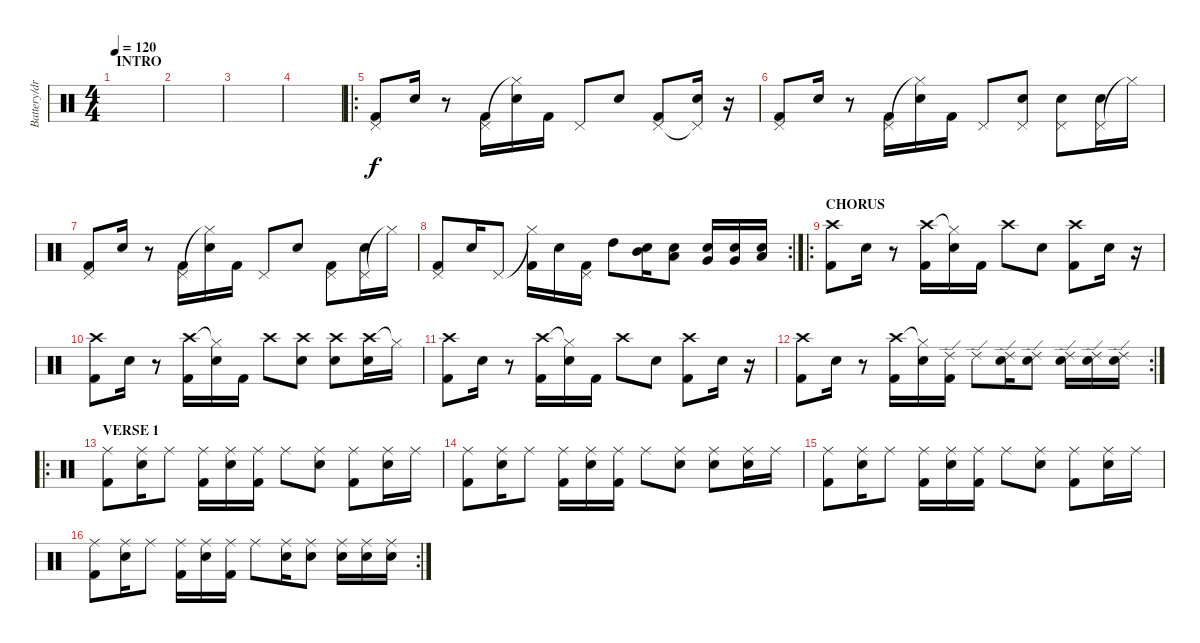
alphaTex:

\track ("Battery/drums" "Battery/dr") {instrument percussion}
\staff {score}
\articulation defaults
\ts (4 4)
\section ("" "INTRO")
\tempo 120
\clef neutral
\ks c
|
|
|
|
\ro
("Pedal Hi-Hat (hit)" "Kick (hit) 2").8 "Electric Snare (hit)".16 r.8 ("Pedal Hi-Hat (hit)" "Kick (hit) 2").16 ("Hi-Hat (closed)"{t} "Electric Snare (hit)").16 "Kick (hit) 2".16 "Pedal Hi-Hat (hit)".8 "Electric Snare (hit)".8 ("Pedal Hi-Hat (hit)" "Kick (hit) 2").8 ("Pedal Hi-Hat (hit)"{t} "Electric Snare (hit)").16 r.16 |
("Pedal Hi-Hat (hit)" "Kick (hit) 2").8 "Electric Snare (hit)".16 r.8 ("Pedal Hi-Hat (hit)" "Kick (hit) 2").16 ("Hi-Hat (closed)"{t} "Electric Snare (hit)").16 "Kick (hit) 2".16 "Pedal Hi-Hat (hit)".8 ("Pedal Hi-Hat (hit)" "Electric Snare (hit)").8 ("Pedal Hi-Hat (hit)" "Electric Snare (hit)").8 ("Pedal Hi-Hat (hit)" "Electric Snare (hit)").16 "Hi-Hat (closed)"{t}.16 |
("Pedal Hi-Hat (hit)" "Kick (hit) 2").8 "Electric Snare (hit)".16 r.8 ("Pedal Hi-Hat (hit)" "Kick (hit) 2").16 ("Hi-Hat (closed)"{t} "Electric Snare (hit)").16 "Kick (hit) 2".16 "Pedal Hi-Hat (hit)".8 "Electric Snare (hit)".8 ("Pedal Hi-Hat (hit)" "Kick (hit) 2").8 ("Pedal Hi-Hat (hit)" "Electric Snare (hit)").16 "Hi-Hat (closed)"{t}.16 |
\rc 2
("Pedal Hi-Hat (hit)" "Kick (hit) 2").8 "Electric Snare (hit)".16 "Pedal Hi-Hat (hit)".8 ("Hi-Hat (closed)"{t} "Kick (hit) 2").16 "Electric Snare (hit)".16 ("Pedal Hi-Hat (hit)" "Kick (hit) 2").16 "High Tom (hit)".8 ("Mid Tom (hit)" "Electric Snare (hit)").16 ("Low Tom (hit)" "Electric Snare (hit)").8 ("Very Low Tom (hit)" "Electric Snare (hit)").16 ("Very Low Tom (hit)" "Electric Snare (hit)").16 ("Low Floor Tom (hit)" "Electric Snare (hit)").16 |
\ro
\section ("" "CHORUS")
("Crash high (hit)" "Kick (hit) 2").8 "Electric Snare (hit)".16 r.8 ("Crash high (hit)" "Kick (hit) 2").16 ("Hi-Hat (closed)"{t} "Electric Snare (hit)").16 "Kick (hit) 2".16 "Crash high (hit)".8 "Electric Snare (hit)".8 ("Crash high (hit)" "Kick (hit) 2").8 "Electric Snare (hit)".16 r.16 |
("Crash high (hit)" "Kick (hit) 2").8 "Electric Snare (hit)".16 r.8 ("Crash high (hit)" "Kick (hit) 2").16 ("Hi-Hat (closed)"{t} "Electric Snare (hit)").16 "Kick (hit) 2".16 "Crash high (hit)".8 ("Crash high (hit)" "Electric Snare (hit)").8 ("Crash high (hit)" "Electric Snare (hit)").8 ("Crash high (hit)" "Electric Snare (hit)").16 "Hi-Hat (closed)"{t}.16 |
("Crash high (hit)" "Kick (hit) 2").8 "Electric Snare (hit)".16 r.8 ("Crash high (hit)" "Kick (hit) 2").16 ("Hi-Hat (closed)"{t} "Electric Snare (hit)").16 "Kick (hit) 2".16 "Crash high (hit)".8 "Electric Snare (hit)".8 ("Crash high (hit)" "Kick (hit) 2").8 "Electric Snare (hit)".16 r.16 |
\rc 2
("Crash high (hit)" "Kick (hit) 2").8 "Electric Snare (hit)".16 r.8 ("Crash high (hit)" "Kick (hit) 2").16 ("Hi-Hat (closed)"{t} "Electric Snare (hit)").16 ("Ride (edge) 2" "Kick (hit) 2").16 "Ride (edge) 2".8 ("Ride (edge) 2" "Electric Snare (hit)").16 ("Ride (edge) 2" "Electric Snare (hit)").8 ("Ride (edge) 2" "Electric Snare (hit)").16 ("Ride (edge) 2" "Electric Snare (hit)").16 ("Ride (edge) 2" "Electric Snare (hit)").16 |
\ro
\section ("" "VERSE 1")
("Ride (middle)" "Kick (hit) 2").8 ("Ride (middle)" "Electric Snare (hit)").16 "Ride (middle)".8 ("Ride (middle)" "Kick (hit) 2").16 ("Ride (middle)" "Electric Snare (hit)").16 ("Ride (middle)" "Kick (hit) 2").16 "Ride (middle)".8 ("Ride (middle)" "Electric Snare (hit)").8 ("Ride (middle)" "Kick (hit) 2").8 ("Ride (middle)" "Electric Snare (hit)").16 "Ride (middle)".16 |
("Ride (middle)" "Kick (hit) 2").8 ("Ride (middle)" "Electric Snare (hit)").16 "Ride (middle)".8 ("Ride (middle)" "Kick (hit) 2").16 ("Ride (middle)" "Electric Snare (hit)").16 ("Ride (middle)" "Kick (hit) 2").16 "Ride (middle)".8 ("Ride (middle)" "Electric Snare (hit)").8 ("Ride (middle)" "Electric Snare (hit)").8 ("Ride (middle)" "Electric Snare (hit)").16 "Ride (middle)".16 |
("Ride (middle)" "Kick (hit) 2").8 ("Ride (middle)" "Electric Snare (hit)").16 "Ride (middle)".8 ("Ride (middle)" "Kick (hit) 2").16 ("Ride (middle)" "Electric Snare (hit)").16 ("Ride (middle)" "Kick (hit) 2").16 "Ride (middle)".8 ("Ride (middle)" "Electric Snare (hit)").8 ("Ride (middle)" "Kick (hit) 2").8 ("Ride (middle)" "Electric Snare (hit)").16 "Ride (middle)".16 |
\rc 2
("Ride (middle)" "Kick (hit) 2").8 ("Ride (middle)" "Electric Snare (hit)").16 "Ride (middle)".8 ("Ride (middle)" "Kick (hit) 2").16 ("Ride (middle)" "Electric Snare (hit)").16 ("Ride (middle)" "Kick (hit) 2").16 "Ride (middle)".8 ("Ride (middle)" "Electric Snare (hit)").16 ("Ride (middle)" "Electric Snare (hit)").8 ("Ride (middle)" "Electric Snare (hit)").16 ("Ride (middle)" "Electric Snare (hit)").16 ("Ride (middle)" "Electric Snare (hit)").16
